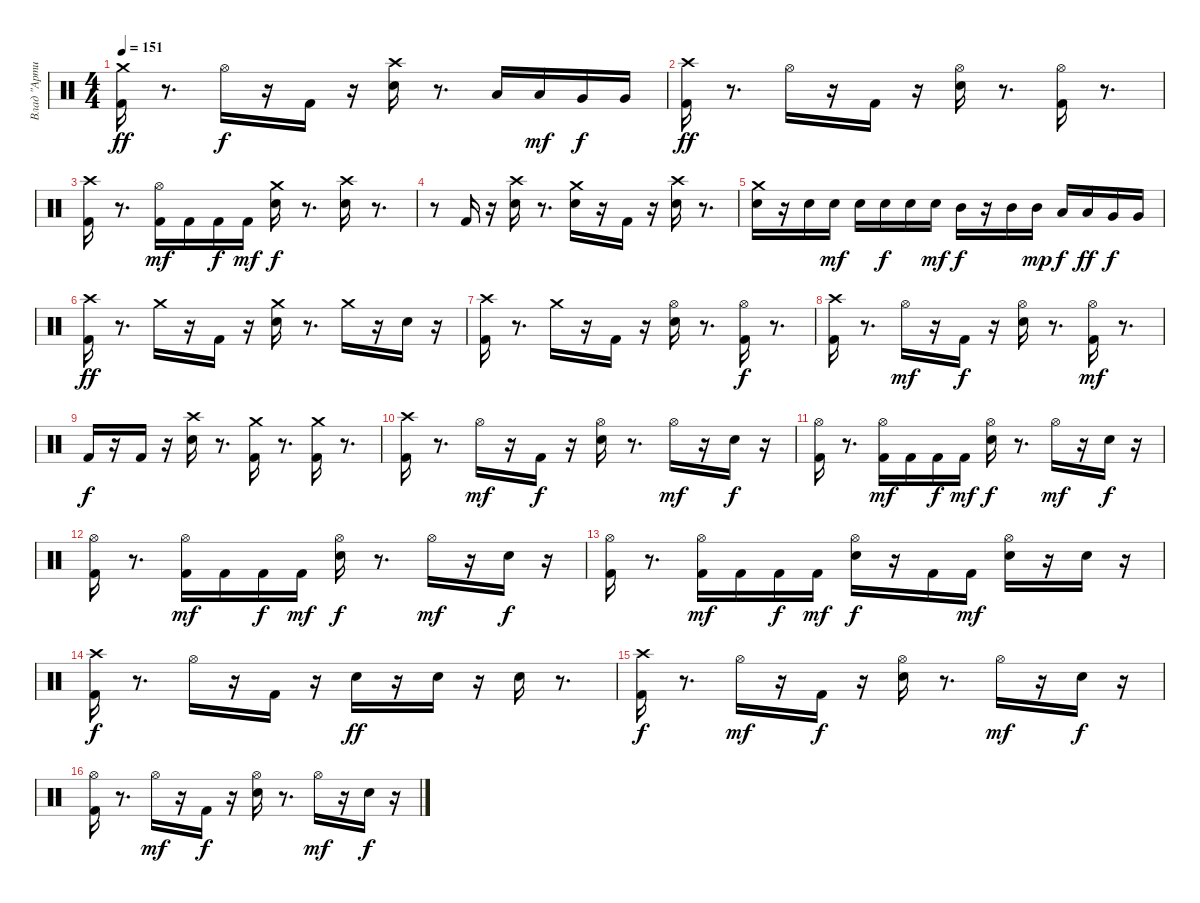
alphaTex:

\track ("Влад \"Артист\"" "Влад \"Арти") {instrument percussion}
\staff {score}
\articulation defaults
\ts (4 4)
\tempo 151
\clef neutral
\ks c
("Crash medium (hit)" "Kick (hit) 2").16{dy ff} r.8{d} "Hi-Hat (open)".16{dy f} r.16 "Kick (hit) 2".16 r.16 ("Crash high (hit)" "Snare (hit) 2").16 r.8{d} "Low Tom (hit)".16 "Low Tom (hit)".16{dy mf} "Very Low Tom (hit)".16{dy f} "Very Low Tom (hit)".16 |
("Kick (hit) 2" "Crash high (hit)").16{dy ff} r.8{d} "Hi-Hat (open)".16 r.16 "Kick (hit) 2".16 r.16 ("Snare (hit) 2" "Hi-Hat (open)").16 r.8{d} ("Hi-Hat (open)" "Kick (hit) 2").16 r.8{d} |
("Kick (hit) 2" "Crash high (hit)").16 r.8{d} ("Hi-Hat (open)" "Kick (hit) 2").16{dy mf} "Kick (hit) 2".16 "Kick (hit) 2".16{dy f} "Kick (hit) 2".16{dy mf} ("Crash medium (hit)" "Snare (hit) 2").16{dy f} r.8{d} ("Crash high (hit)" "Snare (hit) 2").16 r.8{d} |
r.8 "Kick (hit) 2".16 r.16 ("Crash high (hit)" "Snare (hit) 2").16 r.8{d} ("Snare (hit) 2" "Crash medium (hit)").16 r.16 "Kick (hit) 2".16 r.16 ("Snare (hit) 2" "Crash high (hit)").16 r.8{d} |
("Crash medium (hit)" "Snare (hit) 2").16 r.16 "Snare (hit) 2".16 "Snare (hit) 2".16{dy mf} "Snare (hit) 2".16 "Snare (hit) 2".16{dy f} "Snare (hit) 2".16 "Snare (hit) 2".16{dy mf} "Mid Tom (hit)".16{dy f} r.16 "Mid Tom (hit)".16 "Mid Tom (hit)".16{dy mp} "Low Tom (hit)".16{dy f} "Low Tom (hit)".16{dy ff} "Very Low Tom (hit)".16{dy f} "Very Low Tom (hit)".16 |
("Kick (hit) 2" "Crash high (hit)").16{dy ff} r.8{d} "Crash medium (hit)".16 r.16 "Kick (hit) 2".16 r.16 ("Snare (hit) 2" "Crash medium (hit)").16 r.8{d} "Crash medium (hit)".16 r.16 "Snare (hit) 2".16 r.16 |
("Kick (hit) 2" "Crash high (hit)").16 r.8{d} "Crash medium (hit)".16 r.16 "Kick (hit) 2".16 r.16 ("Snare (hit) 2" "Hi-Hat (open)").16 r.8{d} ("Hi-Hat (open)" "Kick (hit) 2").16{dy f} r.8{d} |
("Crash high (hit)" "Kick (hit) 2").16 r.8{d} "Hi-Hat (open)".16{dy mf} r.16 "Kick (hit) 2".16{dy f} r.16 ("Hi-Hat (open)" "Snare (hit) 2").16 r.8{d} ("Hi-Hat (open)" "Kick (hit) 2").16{dy mf} r.8{d} |
"Kick (hit) 2".16{dy f} r.16 "Kick (hit) 2".16 r.16 ("Crash high (hit)" "Snare (hit) 2").16 r.8{d} ("Crash medium (hit)" "Kick (hit) 2").16 r.8{d} ("Crash medium (hit)" "Kick (hit) 2").16 r.8{d} |
("Crash high (hit)" "Kick (hit) 2").16 r.8{d} "Hi-Hat (open)".16{dy mf} r.16 "Kick (hit) 2".16{dy f} r.16 ("Snare (hit) 2" "Hi-Hat (open)").16 r.8{d} "Hi-Hat (open)".16{dy mf} r.16 "Snare (hit) 2".16{dy f} r.16 |
("Kick (hit) 2" "Hi-Hat (open)").16 r.8{d} ("Hi-Hat (open)" "Kick (hit) 2").16{dy mf} "Kick (hit) 2".16 "Kick (hit) 2".16{dy f} "Kick (hit) 2".16{dy mf} ("Hi-Hat (open)" "Snare (hit) 2").16{dy f} r.8{d} "Hi-Hat (open)".16{dy mf} r.16 "Snare (hit) 2".16{dy f} r.16 |
("Hi-Hat (open)" "Kick (hit) 2").16 r.8{d} ("Hi-Hat (open)" "Kick (hit) 2").16{dy mf} "Kick (hit) 2".16 "Kick (hit) 2".16{dy f} "Kick (hit) 2".16{dy mf} ("Hi-Hat (open)" "Snare (hit) 2").16{dy f} r.8{d} "Hi-Hat (open)".16{dy mf} r.16 "Snare (hit) 2".16{dy f} r.16 |
("Kick (hit) 2" "Hi-Hat (open)").16 r.8{d} ("Hi-Hat (open)" "Kick (hit) 2").16{dy mf} "Kick (hit) 2".16 "Kick (hit) 2".16{dy f} "Kick (hit) 2".16{dy mf} ("Hi-Hat (open)" "Snare (hit) 2").16{dy f} r.16 "Kick (hit) 2".16 "Kick (hit) 2".16{dy mf} ("Hi-Hat (open)" "Snare (hit) 2").16 r.16 "Snare (hit) 2".16 r.16 |
("Kick (hit) 2" "Crash high (hit)").16{dy f} r.8{d} "Hi-Hat (open)".16 r.16 "Kick (hit) 2".16 r.16 "Snare (hit) 2".16{dy ff} r.16 "Snare (hit) 2".16 r.16 "Snare (hit) 2".16 r.8{d} |
("Crash high (hit)" "Kick (hit) 2").16{dy f} r.8{d} "Hi-Hat (open)".16{dy mf} r.16 "Kick (hit) 2".16{dy f} r.16 ("Snare (hit) 2" "Hi-Hat (open)").16 r.8{d} "Hi-Hat (open)".16{dy mf} r.16 "Snare (hit) 2".16{dy f} r.16 |
("Hi-Hat (open)" "Kick (hit) 2").16 r.8{d} "Hi-Hat (open)".16{dy mf} r.16 "Kick (hit) 2".16{dy f} r.16 ("Hi-Hat (open)" "Snare (hit) 2").16 r.8{d} "Hi-Hat (open)".16{dy mf} r.16 "Snare (hit) 2".16{dy f} r.16
